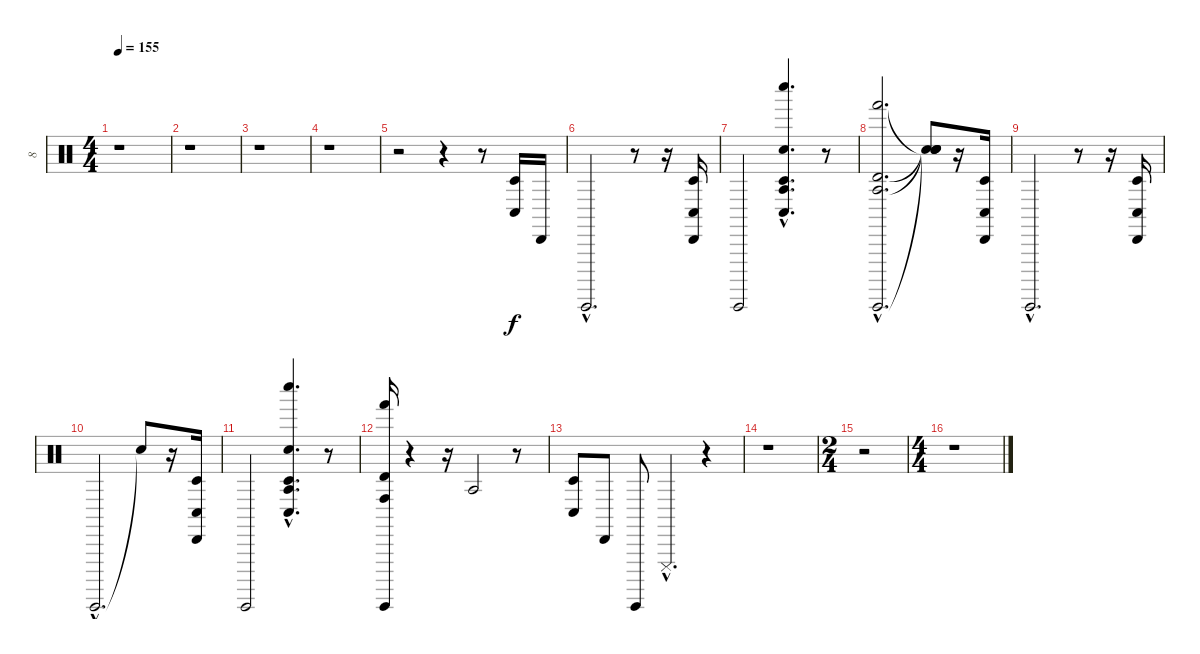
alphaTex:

\track ("8" "8") {instrument percussion}
\staff {score}
\articulation defaults
\ts (4 4)
\tempo 155
\clef neutral
\ks c
r.1{dy f} |
r.1 |
r.1 |
r.1 |
r.2 r.4 r.8 ("Conga low (hit)" "Timbale low (hit)").16 "Cabasa (hit)".16 |
"Guiro (hit)"{hac}.2{d} r.8 r.16 ("Conga low (hit)" "Timbale low (hit)" "Cabasa (hit)").16 |
"Guiro (hit)".2 ("Snare (hit)"{hac} "Whistle low (hit)"{hac} "Timbale low (hit)"{hac} "Agogo tow (hit)"{hac} "Conga low (hit)"{hac}).4{d} r.8 |
("Agogo tow (hit)"{hac} "Timbale high (hit)"{hac} "Hand (hit)"{hac} "Guiro (hit)"{hac}).2{d} ("Snare (hit)"{t} "Snare (hit)"{t} "Snare (hit)"{t} "Snare (hit)"{t}).8 r.16 ("Conga low (hit)" "Timbale low (hit)" "Cabasa (hit)").16 |
"Guiro (hit)"{hac}.2{d} r.8 r.16 ("Timbale low (hit)" "Conga low (hit)" "Cabasa (hit)").16 |
"Guiro (hit)"{hac}.2{d} "Snare (hit)"{t}.8 r.16 ("Conga low (hit)" "Timbale low (hit)" "Cabasa (hit)").16 |
"Guiro (hit)".2 ("Snare (hit)"{hac} "Whistle low (hit)"{hac} "Timbale low (hit)"{hac} "Conga low (hit)"{hac} "Agogo tow (hit)"{hac}).4{d} r.8 |
("Timbale high (hit)" "Guiro (hit)" "Hand (hit)" "Conga high (hit)").16 r.4 r.16 "Agogo tow (hit)".2 r.8 |
("Conga low (hit)" "Timbale low (hit)").8 "Cabasa (hit)".8 "Guiro (hit)".8 "Cuica (mute)"{hac}.4{d} r.4 |
r.1 |
\ts (2 4)
r.2 |
\ts (4 4)
r.1
